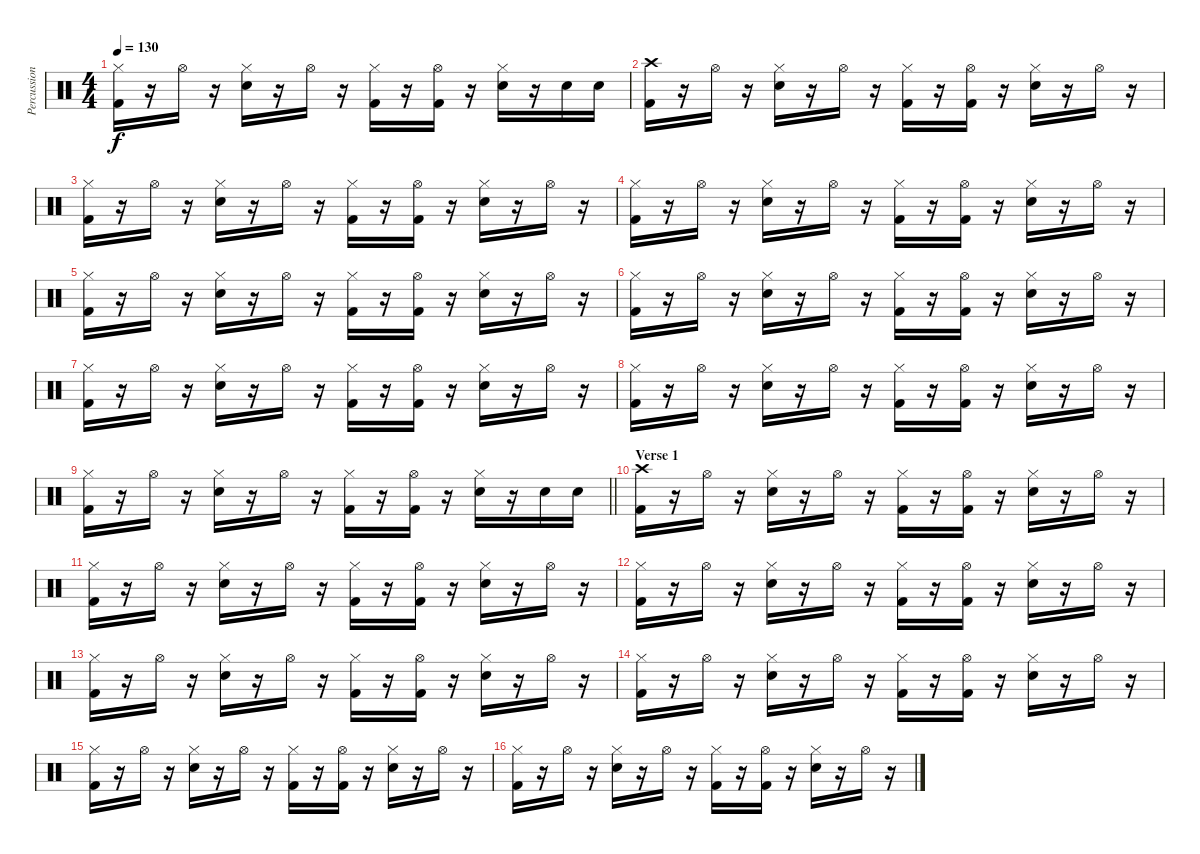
\track ("Percussion" "Percussion") {instrument percussion}
\staff {score}
\articulation defaults
\ts (4 4)
\tempo 130
\clef neutral
\ks c
("Hi-Hat (closed)" "Kick (hit) 2").16{dy f} r.16 "Hi-Hat (open)".16 r.16 ("Hi-Hat (closed)" "Snare (hit) 2").16 r.16 "Hi-Hat (open)".16 r.16 ("Hi-Hat (closed)" "Kick (hit) 2").16 r.16 ("Hi-Hat (open)" "Kick (hit) 2").16 r.16 ("Hi-Hat (closed)" "Snare (hit) 2").16 r.16 "Snare (hit) 2".16 "Snare (hit) 2".16 |
("Crash high (hit)" "Kick (hit) 2").16 r.16 "Hi-Hat (open)".16 r.16 ("Hi-Hat (closed)" "Snare (hit) 2").16 r.16 "Hi-Hat (open)".16 r.16 ("Hi-Hat (closed)" "Kick (hit) 2").16 r.16 ("Hi-Hat (open)" "Kick (hit) 2").16 r.16 ("Hi-Hat (closed)" "Snare (hit) 2").16 r.16 "Hi-Hat (open)".16 r.16 |
("Hi-Hat (closed)" "Kick (hit) 2").16 r.16 "Hi-Hat (open)".16 r.16 ("Hi-Hat (closed)" "Snare (hit) 2").16 r.16 "Hi-Hat (open)".16 r.16 ("Hi-Hat (closed)" "Kick (hit) 2").16 r.16 ("Hi-Hat (open)" "Kick (hit) 2").16 r.16 ("Hi-Hat (closed)" "Snare (hit) 2").16 r.16 "Hi-Hat (open)".16 r.16 |
("Hi-Hat (closed)" "Kick (hit) 2").16 r.16 "Hi-Hat (open)".16 r.16 ("Hi-Hat (closed)" "Snare (hit) 2").16 r.16 "Hi-Hat (open)".16 r.16 ("Hi-Hat (closed)" "Kick (hit) 2").16 r.16 ("Hi-Hat (open)" "Kick (hit) 2").16 r.16 ("Hi-Hat (closed)" "Snare (hit) 2").16 r.16 "Hi-Hat (open)".16 r.16 |
("Hi-Hat (closed)" "Kick (hit) 2").16 r.16 "Hi-Hat (open)".16 r.16 ("Hi-Hat (closed)" "Snare (hit) 2").16 r.16 "Hi-Hat (open)".16 r.16 ("Hi-Hat (closed)" "Kick (hit) 2").16 r.16 ("Hi-Hat (open)" "Kick (hit) 2").16 r.16 ("Hi-Hat (closed)" "Snare (hit) 2").16 r.16 "Hi-Hat (open)".16 r.16 |
("Hi-Hat (closed)" "Kick (hit) 2").16 r.16 "Hi-Hat (open)".16 r.16 ("Hi-Hat (closed)" "Snare (hit) 2").16 r.16 "Hi-Hat (open)".16 r.16 ("Hi-Hat (closed)" "Kick (hit) 2").16 r.16 ("Hi-Hat (open)" "Kick (hit) 2").16 r.16 ("Hi-Hat (closed)" "Snare (hit) 2").16 r.16 "Hi-Hat (open)".16 r.16 |
("Hi-Hat (closed)" "Kick (hit) 2").16 r.16 "Hi-Hat (open)".16 r.16 ("Hi-Hat (closed)" "Snare (hit) 2").16 r.16 "Hi-Hat (open)".16 r.16 ("Hi-Hat (closed)" "Kick (hit) 2").16 r.16 ("Hi-Hat (open)" "Kick (hit) 2").16 r.16 ("Hi-Hat (closed)" "Snare (hit) 2").16 r.16 "Hi-Hat (open)".16 r.16 |
("Hi-Hat (closed)" "Kick (hit) 2").16 r.16 "Hi-Hat (open)".16 r.16 ("Hi-Hat (closed)" "Snare (hit) 2").16 r.16 "Hi-Hat (open)".16 r.16 ("Hi-Hat (closed)" "Kick (hit) 2").16 r.16 ("Hi-Hat (open)" "Kick (hit) 2").16 r.16 ("Hi-Hat (closed)" "Snare (hit) 2").16 r.16 "Hi-Hat (open)".16 r.16 |
\barLineRight lightlight
("Hi-Hat (closed)" "Kick (hit) 2").16 r.16 "Hi-Hat (open)".16 r.16 ("Hi-Hat (closed)" "Snare (hit) 2").16 r.16 "Hi-Hat (open)".16 r.16 ("Hi-Hat (closed)" "Kick (hit) 2").16 r.16 ("Hi-Hat (open)" "Kick (hit) 2").16 r.16 ("Hi-Hat (closed)" "Snare (hit) 2").16 r.16 "Snare (hit) 2".16 "Snare (hit) 2".16 |
\section ("" "Verse 1")
("Crash high (hit)" "Kick (hit) 2").16 r.16 "Hi-Hat (open)".16 r.16 ("Hi-Hat (closed)" "Snare (hit) 2").16 r.16 "Hi-Hat (open)".16 r.16 ("Hi-Hat (closed)" "Kick (hit) 2").16 r.16 ("Hi-Hat (open)" "Kick (hit) 2").16 r.16 ("Hi-Hat (closed)" "Snare (hit) 2").16 r.16 "Hi-Hat (open)".16 r.16 |
("Hi-Hat (closed)" "Kick (hit) 2").16 r.16 "Hi-Hat (open)".16 r.16 ("Hi-Hat (closed)" "Snare (hit) 2").16 r.16 "Hi-Hat (open)".16 r.16 ("Hi-Hat (closed)" "Kick (hit) 2").16 r.16 ("Hi-Hat (open)" "Kick (hit) 2").16 r.16 ("Hi-Hat (closed)" "Snare (hit) 2").16 r.16 "Hi-Hat (open)".16 r.16 |
("Hi-Hat (closed)" "Kick (hit) 2").16 r.16 "Hi-Hat (open)".16 r.16 ("Hi-Hat (closed)" "Snare (hit) 2").16 r.16 "Hi-Hat (open)".16 r.16 ("Hi-Hat (closed)" "Kick (hit) 2").16 r.16 ("Hi-Hat (open)" "Kick (hit) 2").16 r.16 ("Hi-Hat (closed)" "Snare (hit) 2").16 r.16 "Hi-Hat (open)".16 r.16 |
("Hi-Hat (closed)" "Kick (hit) 2").16 r.16 "Hi-Hat (open)".16 r.16 ("Hi-Hat (closed)" "Snare (hit) 2").16 r.16 "Hi-Hat (open)".16 r.16 ("Hi-Hat (closed)" "Kick (hit) 2").16 r.16 ("Hi-Hat (open)" "Kick (hit) 2").16 r.16 ("Hi-Hat (closed)" "Snare (hit) 2").16 r.16 "Hi-Hat (open)".16 r.16 |
("Hi-Hat (closed)" "Kick (hit) 2").16 r.16 "Hi-Hat (open)".16 r.16 ("Hi-Hat (closed)" "Snare (hit) 2").16 r.16 "Hi-Hat (open)".16 r.16 ("Hi-Hat (closed)" "Kick (hit) 2").16 r.16 ("Hi-Hat (open)" "Kick (hit) 2").16 r.16 ("Hi-Hat (closed)" "Snare (hit) 2").16 r.16 "Hi-Hat (open)".16 r.16 |
("Hi-Hat (closed)" "Kick (hit) 2").16 r.16 "Hi-Hat (open)".16 r.16 ("Hi-Hat (closed)" "Snare (hit) 2").16 r.16 "Hi-Hat (open)".16 r.16 ("Hi-Hat (closed)" "Kick (hit) 2").16 r.16 ("Hi-Hat (open)" "Kick (hit) 2").16 r.16 ("Hi-Hat (closed)" "Snare (hit) 2").16 r.16 "Hi-Hat (open)".16 r.16 |
("Hi-Hat (closed)" "Kick (hit) 2").16 r.16 "Hi-Hat (open)".16 r.16 ("Hi-Hat (closed)" "Snare (hit) 2").16 r.16 "Hi-Hat (open)".16 r.16 ("Hi-Hat (closed)" "Kick (hit) 2").16 r.16 ("Hi-Hat (open)" "Kick (hit) 2").16 r.16 ("Hi-Hat (closed)" "Snare (hit) 2").16 r.16 "Hi-Hat (open)".16 r.16
